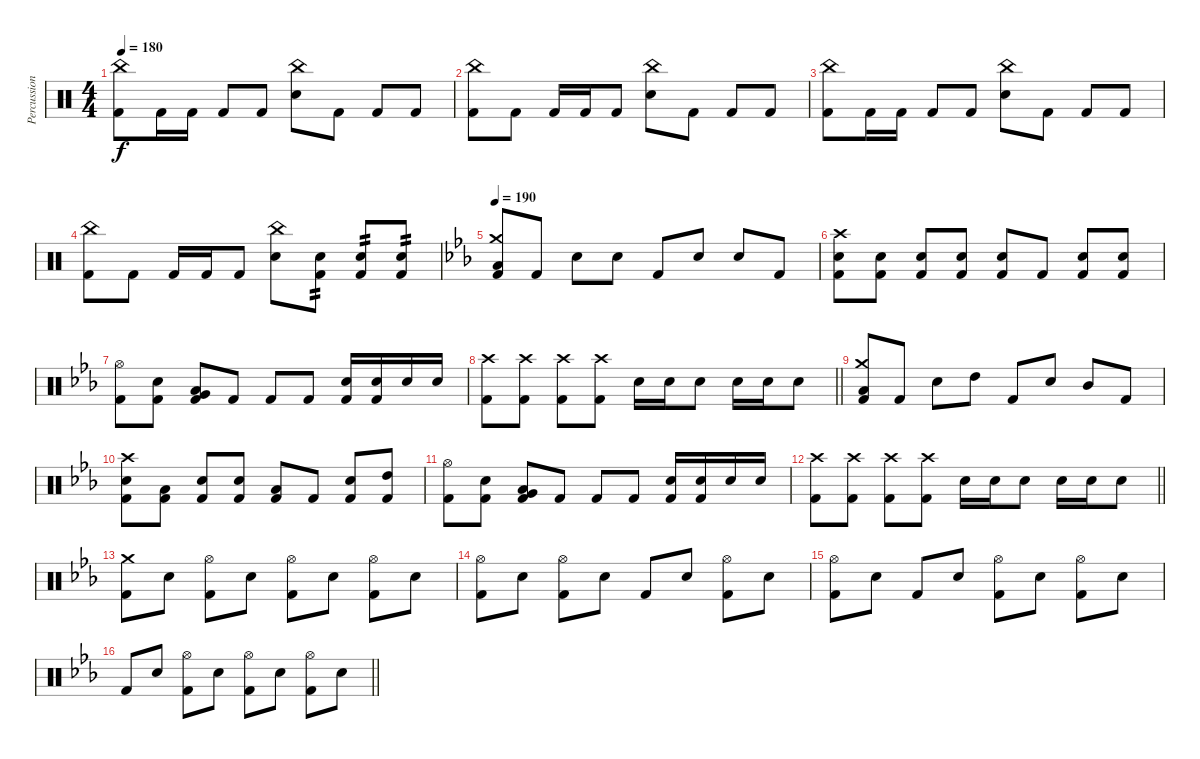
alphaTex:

\track ("Percussion" "Percussion") {instrument percussion}
\staff {score}
\articulation defaults
\ts (4 4)
\tempo 180
\clef neutral
\ks c
("China (hit)" "Kick (hit) 2").8{dy f} "Kick (hit) 2".16 "Kick (hit) 2".16 "Kick (hit) 2".8 "Kick (hit) 2".8 ("Electric Snare (hit)" "China (hit)").8 "Kick (hit) 2".8 "Kick (hit) 2".8 "Kick (hit) 2".8 |
("China (hit)" "Kick (hit) 2").8 "Kick (hit) 2".8 "Kick (hit) 2".16 "Kick (hit) 2".16 "Kick (hit) 2".8 ("Electric Snare (hit)" "China (hit)").8 "Kick (hit) 2".8 "Kick (hit) 2".8 "Kick (hit) 2".8 |
("China (hit)" "Kick (hit) 2").8 "Kick (hit) 2".16 "Kick (hit) 2".16 "Kick (hit) 2".8 "Kick (hit) 2".8 ("Electric Snare (hit)" "China (hit)").8 "Kick (hit) 2".8 "Kick (hit) 2".8 "Kick (hit) 2".8 |
("China (hit)" "Kick (hit) 2").8 "Kick (hit) 2".8 "Kick (hit) 2".16 "Kick (hit) 2".16 "Kick (hit) 2".8 ("Electric Snare (hit)" "China (hit)").8 ("Electric Snare (hit)" "Kick (hit) 2").8{tp 2} ("Electric Snare (hit)" "Kick (hit) 2").8{tp 2} ("Electric Snare (hit)" "Kick (hit) 2").8{tp 2} |
\tempo 190
\ks cminor
("Crash medium (hit)" "Low Tom (hit)" "Kick (hit) 2").8 "Kick (hit) 2".8 "Electric Snare (hit)".8 "Electric Snare (hit)".8 "Kick (hit) 2".8 "Electric Snare (hit)".8 "Electric Snare (hit)".8 "Kick (hit) 2".8 |
("Crash high (hit)" "Electric Snare (hit)" "Kick (hit) 2").8 ("Electric Snare (hit)" "Kick (hit) 2").8 ("Electric Snare (hit)" "Kick (hit) 2").8 ("Electric Snare (hit)" "Kick (hit) 2").8 ("Electric Snare (hit)" "Kick (hit) 2").8 "Kick (hit) 2".8 ("Electric Snare (hit)" "Kick (hit) 2").8 ("Electric Snare (hit)" "Kick (hit) 2").8 |
("Hi-Hat (open)" "Kick (hit) 2").8 ("Electric Snare (hit)" "Kick (hit) 2").8 ("Very Low Tom (hit)" "Low Floor Tom (hit)" "Kick (hit) 2").8 "Kick (hit) 2".8 "Kick (hit) 2".8 "Kick (hit) 2".8 ("Electric Snare (hit)" "Kick (hit) 2").16 ("Electric Snare (hit)" "Kick (hit) 2").16 "Electric Snare (hit)".16 "Electric Snare (hit)".16 |
\barLineRight lightlight
("Crash high (hit)" "Kick (hit) 2").8 ("Crash high (hit)" "Kick (hit) 2").8 ("Crash high (hit)" "Kick (hit) 2").8 ("Crash high (hit)" "Kick (hit) 2").8 "Electric Snare (hit)".16 "Electric Snare (hit)".16 "Electric Snare (hit)".8 "Electric Snare (hit)".16 "Electric Snare (hit)".16 "Electric Snare (hit)".8 |
("Crash medium (hit)" "Low Tom (hit)" "Kick (hit) 2").8 "Kick (hit) 2".8 "Electric Snare (hit)".8 "High Tom (hit)".8 "Kick (hit) 2".8 "Electric Snare (hit)".8 "Mid Tom (hit)".8 "Kick (hit) 2".8 |
("Crash high (hit)" "Electric Snare (hit)" "Kick (hit) 2").8 ("Low Tom (hit)" "Kick (hit) 2").8 ("Electric Snare (hit)" "Kick (hit) 2").8 ("Electric Snare (hit)" "Kick (hit) 2").8 ("Low Tom (hit)" "Kick (hit) 2").8 "Kick (hit) 2".8 ("Electric Snare (hit)" "Kick (hit) 2").8 ("High Tom (hit)" "Kick (hit) 2").8 |
("Hi-Hat (open)" "Kick (hit) 2").8 ("Electric Snare (hit)" "Kick (hit) 2").8 ("Very Low Tom (hit)" "Low Floor Tom (hit)" "Kick (hit) 2").8 "Kick (hit) 2".8 "Kick (hit) 2".8 "Kick (hit) 2".8 ("Electric Snare (hit)" "Kick (hit) 2").16 ("Electric Snare (hit)" "Kick (hit) 2").16 "Electric Snare (hit)".16 "Electric Snare (hit)".16 |
\barLineRight lightlight
("Crash high (hit)" "Kick (hit) 2").8 ("Crash high (hit)" "Kick (hit) 2").8 ("Crash high (hit)" "Kick (hit) 2").8 ("Crash high (hit)" "Kick (hit) 2").8 "Electric Snare (hit)".16 "Electric Snare (hit)".16 "Electric Snare (hit)".8 "Electric Snare (hit)".16 "Electric Snare (hit)".16 "Electric Snare (hit)".8 |
("Crash medium (hit)" "Kick (hit) 2").8 "Electric Snare (hit)".8 ("Hi-Hat (open)" "Kick (hit) 2").8 "Electric Snare (hit)".8 ("Hi-Hat (open)" "Kick (hit) 2").8 "Electric Snare (hit)".8 ("Hi-Hat (open)" "Kick (hit) 2").8 "Electric Snare (hit)".8 |
("Hi-Hat (open)" "Kick (hit) 2").8 "Electric Snare (hit)".8 ("Hi-Hat (open)" "Kick (hit) 2").8 "Electric Snare (hit)".8 "Kick (hit) 2".8 "Electric Snare (hit)".8 ("Hi-Hat (open)" "Kick (hit) 2").8 "Electric Snare (hit)".8 |
("Hi-Hat (open)" "Kick (hit) 2").8 "Electric Snare (hit)".8 "Kick (hit) 2".8 "Electric Snare (hit)".8 ("Hi-Hat (open)" "Kick (hit) 2").8 "Electric Snare (hit)".8 ("Hi-Hat (open)" "Kick (hit) 2").8 "Electric Snare (hit)".8 |
\barLineRight lightlight "Kick (hit) 2".8 "Electric Snare (hit)".8
("Hi-Hat (open)" "Kick (hit) 2").8 "Electric Snare (hit)".8 ("Hi-Hat (open)" "Kick (hit) 2").8 "Electric Snare (hit)".8 ("Hi-Hat (open)" "Kick (hit) 2").8 "Electric Snare (hit)".8
